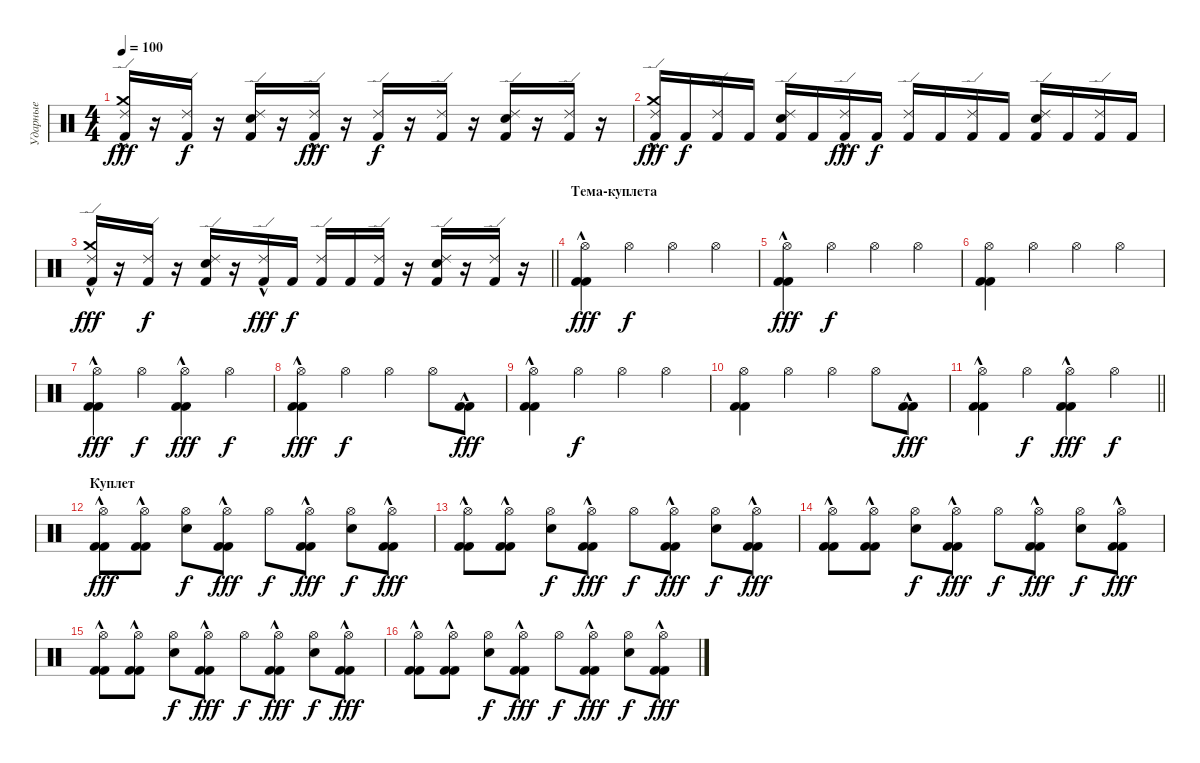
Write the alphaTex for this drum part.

\track ("Ударные" "Ударные") {instrument percussion}
\staff {score}
\articulation defaults
\ts (4 4)
\tempo 100
\clef neutral
\ks c
("Ride (edge) 2" "Crash medium (hit)" "Kick (hit) 2"{hac}).16{dy fff} r.16 ("Ride (edge) 2" "Kick (hit) 2").16{dy f} r.16 ("Ride (edge) 2" "Snare (hit) 2" "Kick (hit) 2").16 r.16 ("Ride (edge) 2" "Kick (hit) 2"{hac}).16{dy fff} r.16 ("Ride (edge) 2" "Kick (hit) 2").16{dy f} r.16 ("Ride (edge) 2" "Kick (hit) 2").16 r.16 ("Ride (edge) 2" "Snare (hit) 2" "Kick (hit) 2").16 r.16 ("Ride (edge) 2" "Kick (hit) 2").16 r.16 |
("Ride (edge) 2" "Crash medium (hit)" "Kick (hit) 2"{hac}).16{dy fff} "Kick (hit) 2".16{dy f} ("Ride (edge) 2" "Kick (hit) 2").16 "Kick (hit) 2".16 ("Ride (edge) 2" "Snare (hit) 2" "Kick (hit) 2").16 "Kick (hit) 2".16 ("Ride (edge) 2" "Kick (hit) 2"{hac}).16{dy fff} "Kick (hit) 2".16{dy f} ("Ride (edge) 2" "Kick (hit) 2").16 "Kick (hit) 2".16 ("Ride (edge) 2" "Kick (hit) 2").16 "Kick (hit) 2".16 ("Ride (edge) 2" "Snare (hit) 2" "Kick (hit) 2").16 "Kick (hit) 2".16 ("Ride (edge) 2" "Kick (hit) 2").16 "Kick (hit) 2".16 |
\barLineRight lightlight
("Ride (edge) 2" "Crash medium (hit)" "Kick (hit) 2"{hac}).16{dy fff} r.16 ("Ride (edge) 2" "Kick (hit) 2").16{dy f} r.16 ("Ride (edge) 2" "Snare (hit) 2" "Kick (hit) 2").16 r.16 ("Ride (edge) 2" "Kick (hit) 2"{hac}).16{dy fff} "Kick (hit) 2".16{dy f} ("Ride (edge) 2" "Kick (hit) 2").16 "Kick (hit) 2".16 ("Ride (edge) 2" "Kick (hit) 2").16 r.16 ("Ride (edge) 2" "Snare (hit) 2" "Kick (hit) 2").16 r.16 ("Ride (edge) 2" "Kick (hit) 2").16 r.16 |
\section ("" "Тема-куплета")
("Hi-Hat (open)" "Kick (hit) 2"{hac} "Kick (hit) 2").4{dy fff} "Hi-Hat (open)".4{dy f} "Hi-Hat (open)".4 "Hi-Hat (open)".4 |
("Hi-Hat (open)" "Kick (hit) 2"{hac} "Kick (hit) 2").4{dy fff} "Hi-Hat (open)".4{dy f} "Hi-Hat (open)".4 "Hi-Hat (open)".4 |
("Hi-Hat (open)" "Kick (hit) 2" "Kick (hit) 2").4 "Hi-Hat (open)".4 "Hi-Hat (open)".4 "Hi-Hat (open)".4 |
("Hi-Hat (open)" "Kick (hit) 2"{hac} "Kick (hit) 2").4{dy fff} "Hi-Hat (open)".4{dy f} ("Hi-Hat (open)" "Kick (hit) 2"{hac} "Kick (hit) 2").4{dy fff} "Hi-Hat (open)".4{dy f} |
("Hi-Hat (open)" "Kick (hit) 2"{hac} "Kick (hit) 2").4{dy fff} "Hi-Hat (open)".4{dy f} "Hi-Hat (open)".4 "Hi-Hat (open)".8 ("Kick (hit) 2"{hac} "Kick (hit) 2").8{dy fff} |
("Hi-Hat (open)" "Kick (hit) 2"{hac} "Kick (hit) 2").4 "Hi-Hat (open)".4{dy f} "Hi-Hat (open)".4 "Hi-Hat (open)".4 |
("Hi-Hat (open)" "Kick (hit) 2" "Kick (hit) 2").4 "Hi-Hat (open)".4 "Hi-Hat (open)".4 "Hi-Hat (open)".8 ("Kick (hit) 2"{hac} "Kick (hit) 2").8{dy fff} |
\barLineRight lightlight
("Hi-Hat (open)" "Kick (hit) 2"{hac} "Kick (hit) 2").4 "Hi-Hat (open)".4{dy f} ("Hi-Hat (open)" "Kick (hit) 2"{hac} "Kick (hit) 2").4{dy fff} "Hi-Hat (open)".4{dy f} |
\section ("" "Куплет")
("Hi-Hat (open)" "Kick (hit) 2"{hac} "Kick (hit) 2").8{dy fff} ("Hi-Hat (open)" "Kick (hit) 2"{hac} "Kick (hit) 2").8 ("Hi-Hat (open)" "Electric Snare (hit)").8{dy f} ("Hi-Hat (open)" "Kick (hit) 2"{hac} "Kick (hit) 2").8{dy fff} "Hi-Hat (open)".8{dy f} ("Hi-Hat (open)" "Kick (hit) 2"{hac} "Kick (hit) 2").8{dy fff} ("Hi-Hat (open)" "Electric Snare (hit)").8{dy f} ("Hi-Hat (open)" "Kick (hit) 2"{hac} "Kick (hit) 2").8{dy fff} |
("Hi-Hat (open)" "Kick (hit) 2"{hac} "Kick (hit) 2").8 ("Hi-Hat (open)" "Kick (hit) 2"{hac} "Kick (hit) 2").8 ("Hi-Hat (open)" "Electric Snare (hit)").8{dy f} ("Hi-Hat (open)" "Kick (hit) 2"{hac} "Kick (hit) 2").8{dy fff} "Hi-Hat (open)".8{dy f} ("Hi-Hat (open)" "Kick (hit) 2"{hac} "Kick (hit) 2").8{dy fff} ("Hi-Hat (open)" "Electric Snare (hit)").8{dy f} ("Hi-Hat (open)" "Kick (hit) 2"{hac} "Kick (hit) 2").8{dy fff} |
("Hi-Hat (open)" "Kick (hit) 2"{hac} "Kick (hit) 2").8 ("Hi-Hat (open)" "Kick (hit) 2"{hac} "Kick (hit) 2").8 ("Hi-Hat (open)" "Electric Snare (hit)").8{dy f} ("Hi-Hat (open)" "Kick (hit) 2"{hac} "Kick (hit) 2").8{dy fff} "Hi-Hat (open)".8{dy f} ("Hi-Hat (open)" "Kick (hit) 2"{hac} "Kick (hit) 2").8{dy fff} ("Hi-Hat (open)" "Electric Snare (hit)").8{dy f} ("Hi-Hat (open)" "Kick (hit) 2"{hac} "Kick (hit) 2").8{dy fff} |
("Hi-Hat (open)" "Kick (hit) 2"{hac} "Kick (hit) 2").8 ("Hi-Hat (open)" "Kick (hit) 2"{hac} "Kick (hit) 2").8 ("Hi-Hat (open)" "Electric Snare (hit)").8{dy f} ("Hi-Hat (open)" "Kick (hit) 2"{hac} "Kick (hit) 2").8{dy fff} "Hi-Hat (open)".8{dy f} ("Hi-Hat (open)" "Kick (hit) 2"{hac} "Kick (hit) 2").8{dy fff} ("Hi-Hat (open)" "Electric Snare (hit)").8{dy f} ("Hi-Hat (open)" "Kick (hit) 2"{hac} "Kick (hit) 2").8{dy fff} |
("Hi-Hat (open)" "Kick (hit) 2"{hac} "Kick (hit) 2").8 ("Hi-Hat (open)" "Kick (hit) 2"{hac} "Kick (hit) 2").8 ("Hi-Hat (open)" "Electric Snare (hit)").8{dy f} ("Hi-Hat (open)" "Kick (hit) 2"{hac} "Kick (hit) 2").8{dy fff} "Hi-Hat (open)".8{dy f} ("Hi-Hat (open)" "Kick (hit) 2"{hac} "Kick (hit) 2").8{dy fff} ("Hi-Hat (open)" "Electric Snare (hit)").8{dy f} ("Hi-Hat (open)" "Kick (hit) 2"{hac} "Kick (hit) 2").8{dy fff}
